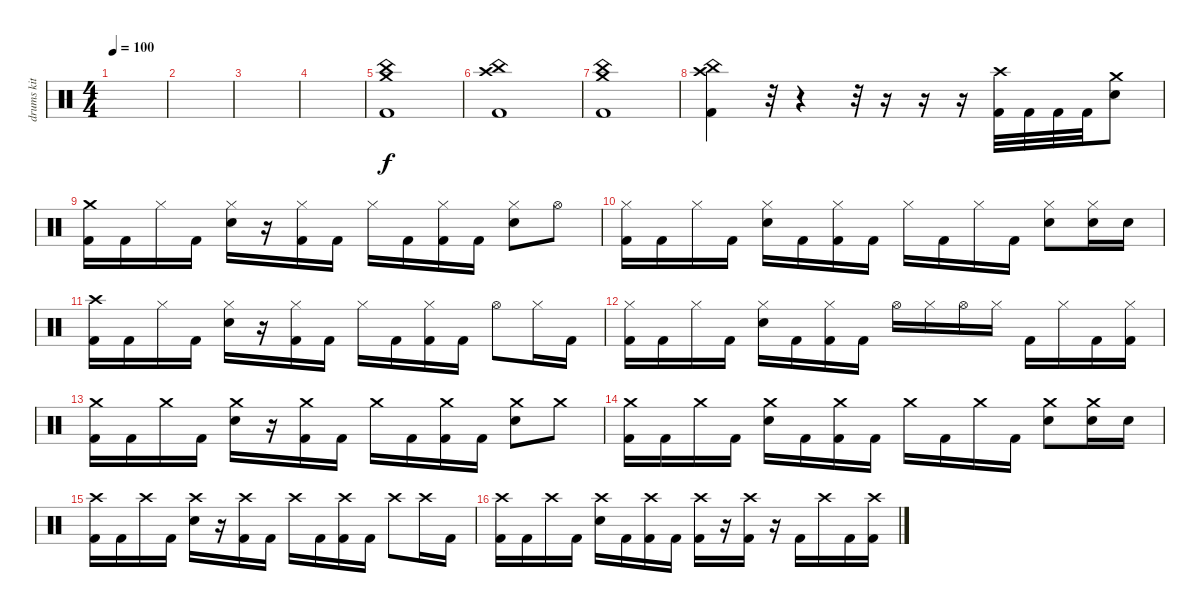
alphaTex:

\track ("drums kit" "drums kit") {instrument percussion}
\staff {score}
\articulation defaults
\ts (4 4)
\tempo 100
\clef neutral
\ks c
|
|
|
|
("China (hit)" "Crash medium (hit)" "Kick (hit) 2").1 |
("China (hit)" "Crash high (hit)" "Kick (hit) 2").1 |
("China (hit)" "Crash medium (hit)" "Kick (hit) 2").1 |
("China (hit)" "Crash high (hit)" "Kick (hit) 2").4 r.32 r.4 r.32 r.16 r.16 r.16 ("Crash high (hit)" "Kick (hit) 2").32 "Kick (hit) 2".32 "Kick (hit) 2".32 "Kick (hit) 2".32 ("Crash medium (hit)" "Snare (hit) 2").8 |
("Crash medium (hit)" "Kick (hit) 2").16 "Kick (hit) 2".16 "Hi-Hat (closed)".16 "Kick (hit) 2".16 ("Hi-Hat (closed)" "Snare (hit) 2").16 r.16 ("Hi-Hat (closed)" "Kick (hit) 2").16 "Kick (hit) 2".16 "Hi-Hat (closed)".16 "Kick (hit) 2".16 ("Hi-Hat (closed)" "Kick (hit) 2").16 "Kick (hit) 2".16 ("Hi-Hat (closed)" "Snare (hit) 2").8 "Hi-Hat (open)".8 |
("Hi-Hat (closed)" "Kick (hit) 2").16 "Kick (hit) 2".16 "Hi-Hat (closed)".16 "Kick (hit) 2".16 ("Hi-Hat (closed)" "Snare (hit) 2").16 "Kick (hit) 2".16 ("Hi-Hat (closed)" "Kick (hit) 2").16 "Kick (hit) 2".16 "Hi-Hat (closed)".16 "Kick (hit) 2".16 "Hi-Hat (closed)".16 "Kick (hit) 2".16 ("Hi-Hat (closed)" "Snare (hit) 2").8 ("Hi-Hat (closed)" "Snare (hit) 2").16 "Snare (hit) 2".16 |
("Crash high (hit)" "Kick (hit) 2").16 "Kick (hit) 2".16 "Hi-Hat (closed)".16 "Kick (hit) 2".16 ("Hi-Hat (closed)" "Snare (hit) 2").16 r.16 ("Hi-Hat (closed)" "Kick (hit) 2").16 "Kick (hit) 2".16 "Hi-Hat (closed)".16 "Kick (hit) 2".16 ("Hi-Hat (closed)" "Kick (hit) 2").16 "Kick (hit) 2".16 "Hi-Hat (open)".8 "Hi-Hat (closed)".16 "Kick (hit) 2".16 |
("Hi-Hat (closed)" "Kick (hit) 2").16 "Kick (hit) 2".16 "Hi-Hat (closed)".16 "Kick (hit) 2".16 ("Hi-Hat (closed)" "Snare (hit) 2").16 "Kick (hit) 2".16 ("Hi-Hat (closed)" "Kick (hit) 2").16 "Kick (hit) 2".16 "Hi-Hat (open)".16 "Hi-Hat (closed)".16 "Hi-Hat (open)".16 "Hi-Hat (closed)".16 "Kick (hit) 2".16 "Hi-Hat (closed)".16 "Kick (hit) 2".16 ("Hi-Hat (closed)" "Kick (hit) 2").16 |
("Crash medium (hit)" "Kick (hit) 2").16 "Kick (hit) 2".16 "Crash medium (hit)".16 "Kick (hit) 2".16 ("Crash medium (hit)" "Snare (hit) 2").16 r.16 ("Crash medium (hit)" "Kick (hit) 2").16 "Kick (hit) 2".16 "Crash medium (hit)".16 "Kick (hit) 2".16 ("Crash medium (hit)" "Kick (hit) 2").16 "Kick (hit) 2".16 ("Crash medium (hit)" "Snare (hit) 2").8 "Crash medium (hit)".8 |
("Crash medium (hit)" "Kick (hit) 2").16 "Kick (hit) 2".16 "Crash medium (hit)".16 "Kick (hit) 2".16 ("Crash medium (hit)" "Snare (hit) 2").16 "Kick (hit) 2".16 ("Crash medium (hit)" "Kick (hit) 2").16 "Kick (hit) 2".16 "Crash medium (hit)".16 "Kick (hit) 2".16 "Crash medium (hit)".16 "Kick (hit) 2".16 ("Crash medium (hit)" "Snare (hit) 2").8 ("Crash medium (hit)" "Snare (hit) 2").16 "Snare (hit) 2".16 |
("Crash high (hit)" "Kick (hit) 2").16 "Kick (hit) 2".16 "Crash high (hit)".16 "Kick (hit) 2".16 ("Crash high (hit)" "Snare (hit) 2").16 r.16 ("Crash high (hit)" "Kick (hit) 2").16 "Kick (hit) 2".16 "Crash high (hit)".16 "Kick (hit) 2".16 ("Crash high (hit)" "Kick (hit) 2").16 "Kick (hit) 2".16 "Crash high (hit)".8 "Crash high (hit)".16 "Kick (hit) 2".16 |
("Crash high (hit)" "Kick (hit) 2").16 "Kick (hit) 2".16 "Crash high (hit)".16 "Kick (hit) 2".16 ("Crash high (hit)" "Snare (hit) 2").16 "Kick (hit) 2".16 ("Crash high (hit)" "Kick (hit) 2").16 "Kick (hit) 2".16 ("Crash high (hit)" "Kick (hit) 2").16 r.16 ("Crash high (hit)" "Kick (hit) 2").16 r.16 "Kick (hit) 2".16 "Crash high (hit)".16 "Kick (hit) 2".16 ("Crash high (hit)" "Kick (hit) 2").16
